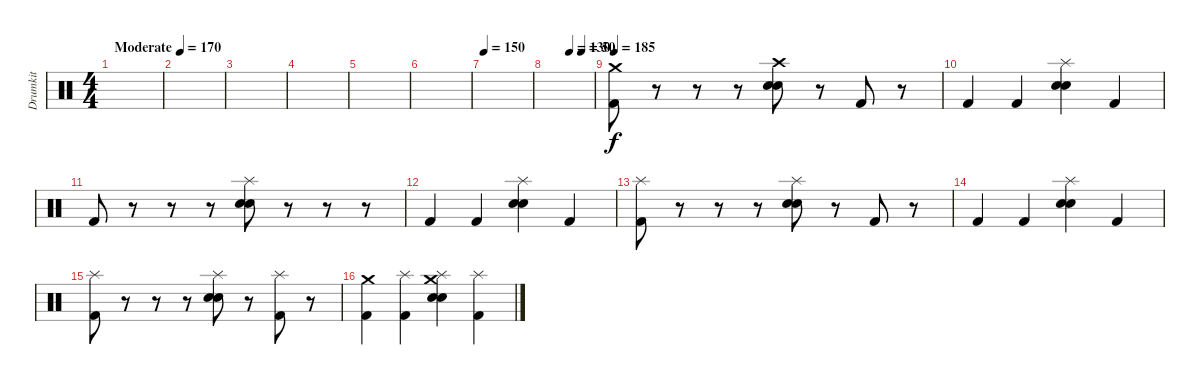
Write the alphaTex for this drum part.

\track ("Drumkit" "Drumkit") {instrument percussion}
\staff {score}
\articulation defaults
\ts (4 4)
\tempo (170 "Moderate")
\clef neutral
\ks c
|
|
|
|
|
|
\tempo 150
|
\tempo (130 0.5)
\tempo (50 0.75)
|
\tempo 185
("Crash medium (hit)" "Kick (hit) 2").8 r.8 r.8 r.8 ("Crash high (hit)" "Electric Snare (hit)" "Snare (hit) 2").8 r.8 "Kick (hit) 2".8 r.8 |
"Kick (hit) 2".4 "Kick (hit) 2".4 ("Splash (hit)" "Electric Snare (hit)" "Snare (hit) 2").4 "Kick (hit) 2".4 |
"Kick (hit) 2".8 r.8 r.8 r.8 ("Splash (hit)" "Electric Snare (hit)" "Snare (hit) 2").8 r.8 r.8 r.8 |
"Kick (hit) 2".4 "Kick (hit) 2".4 ("Splash (hit)" "Electric Snare (hit)" "Snare (hit) 2").4 "Kick (hit) 2".4 |
("Splash (hit)" "Kick (hit) 2").8 r.8 r.8 r.8 ("Splash (hit)" "Electric Snare (hit)" "Snare (hit) 2").8 r.8 "Kick (hit) 2".8 r.8 |
"Kick (hit) 2".4 "Kick (hit) 2".4 ("Splash (hit)" "Electric Snare (hit)" "Snare (hit) 2").4 "Kick (hit) 2".4 |
("Splash (hit)" "Kick (hit) 2").8 r.8 r.8 r.8 ("Splash (hit)" "Electric Snare (hit)" "Snare (hit) 2").8 r.8 ("Splash (hit)" "Kick (hit) 2").8 r.8 |
("Crash medium (hit)" "Kick (hit) 2").4 ("Splash (hit)" "Kick (hit) 2").4 ("Crash medium (hit)" "Splash (hit)" "Electric Snare (hit)" "Snare (hit) 2").4 ("Splash (hit)" "Kick (hit) 2").4
